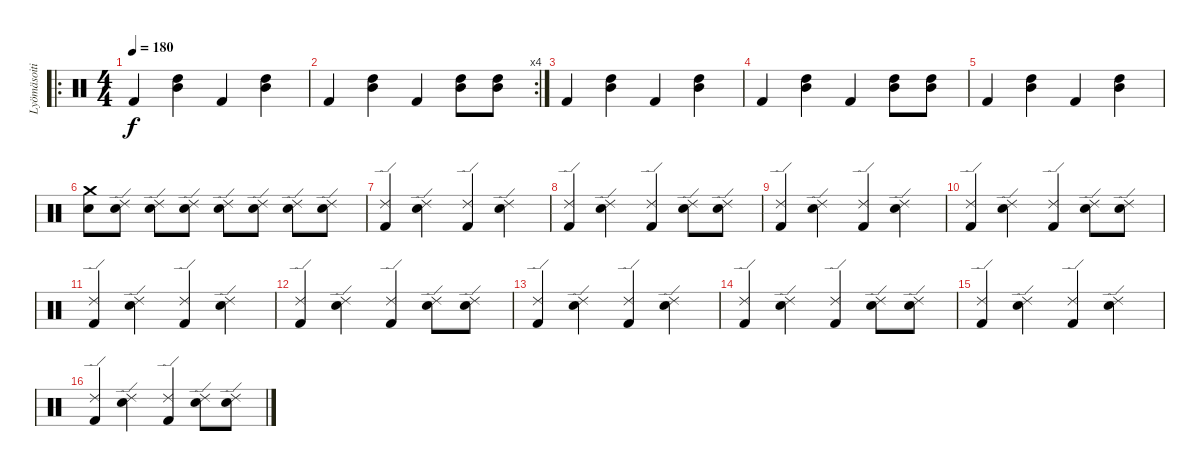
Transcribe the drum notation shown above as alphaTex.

\track ("Lyömäsoitin" "Lyömäsoiti") {instrument percussion}
\staff {score}
\articulation defaults
\ro
\ts (4 4)
\tempo 180
\clef neutral
\ks c "Kick (hit) 2".4{dy f}
("Mid Tom (hit)" "High Tom (hit)").4 "Kick (hit) 2".4 ("Mid Tom (hit)" "High Tom (hit)").4 |
\rc 4 "Kick (hit) 2".4
("Mid Tom (hit)" "High Tom (hit)").4 "Kick (hit) 2".4 ("Mid Tom (hit)" "High Tom (hit)").8 ("Mid Tom (hit)" "High Tom (hit)").8 |
"Kick (hit) 2".4 ("Mid Tom (hit)" "High Tom (hit)").4 "Kick (hit) 2".4 ("Mid Tom (hit)" "High Tom (hit)").4 |
"Kick (hit) 2".4 ("Mid Tom (hit)" "High Tom (hit)").4 "Kick (hit) 2".4 ("Mid Tom (hit)" "High Tom (hit)").8 ("Mid Tom (hit)" "High Tom (hit)").8 |
"Kick (hit) 2".4 ("Mid Tom (hit)" "High Tom (hit)").4 "Kick (hit) 2".4 ("Mid Tom (hit)" "High Tom (hit)").4 |
("Crash medium (hit)" "Snare (hit) 2").8 ("Ride (edge) 2" "Snare (hit) 2").8 ("Ride (edge) 2" "Snare (hit) 2").8 ("Ride (edge) 2" "Snare (hit) 2").8 ("Ride (edge) 2" "Snare (hit) 2").8 ("Ride (edge) 2" "Snare (hit) 2").8 ("Ride (edge) 2" "Snare (hit) 2").8 ("Ride (edge) 2" "Snare (hit) 2").8 |
("Ride (edge) 2" "Kick (hit) 2").4 ("Ride (edge) 2" "Snare (hit) 2").4 ("Ride (edge) 2" "Kick (hit) 2").4 ("Ride (edge) 2" "Snare (hit) 2").4 |
("Ride (edge) 2" "Kick (hit) 2").4 ("Ride (edge) 2" "Snare (hit) 2").4 ("Ride (edge) 2" "Kick (hit) 2").4 ("Ride (edge) 2" "Snare (hit) 2").8 ("Ride (edge) 2" "Snare (hit) 2").8 |
("Ride (edge) 2" "Kick (hit) 2").4 ("Ride (edge) 2" "Snare (hit) 2").4 ("Ride (edge) 2" "Kick (hit) 2").4 ("Ride (edge) 2" "Snare (hit) 2").4 |
("Ride (edge) 2" "Kick (hit) 2").4 ("Ride (edge) 2" "Snare (hit) 2").4 ("Ride (edge) 2" "Kick (hit) 2").4 ("Ride (edge) 2" "Snare (hit) 2").8 ("Ride (edge) 2" "Snare (hit) 2").8 |
("Ride (edge) 2" "Kick (hit) 2").4 ("Ride (edge) 2" "Snare (hit) 2").4 ("Ride (edge) 2" "Kick (hit) 2").4 ("Ride (edge) 2" "Snare (hit) 2").4 |
("Ride (edge) 2" "Kick (hit) 2").4 ("Ride (edge) 2" "Snare (hit) 2").4 ("Ride (edge) 2" "Kick (hit) 2").4 ("Ride (edge) 2" "Snare (hit) 2").8 ("Ride (edge) 2" "Snare (hit) 2").8 |
("Ride (edge) 2" "Kick (hit) 2").4 ("Ride (edge) 2" "Snare (hit) 2").4 ("Ride (edge) 2" "Kick (hit) 2").4 ("Ride (edge) 2" "Snare (hit) 2").4 |
("Ride (edge) 2" "Kick (hit) 2").4 ("Ride (edge) 2" "Snare (hit) 2").4 ("Ride (edge) 2" "Kick (hit) 2").4 ("Ride (edge) 2" "Snare (hit) 2").8 ("Ride (edge) 2" "Snare (hit) 2").8 |
("Ride (edge) 2" "Kick (hit) 2").4 ("Ride (edge) 2" "Snare (hit) 2").4 ("Ride (edge) 2" "Kick (hit) 2").4 ("Ride (edge) 2" "Snare (hit) 2").4 |
("Ride (edge) 2" "Kick (hit) 2").4 ("Ride (edge) 2" "Snare (hit) 2").4 ("Ride (edge) 2" "Kick (hit) 2").4 ("Ride (edge) 2" "Snare (hit) 2").8 ("Ride (edge) 2" "Snare (hit) 2").8
